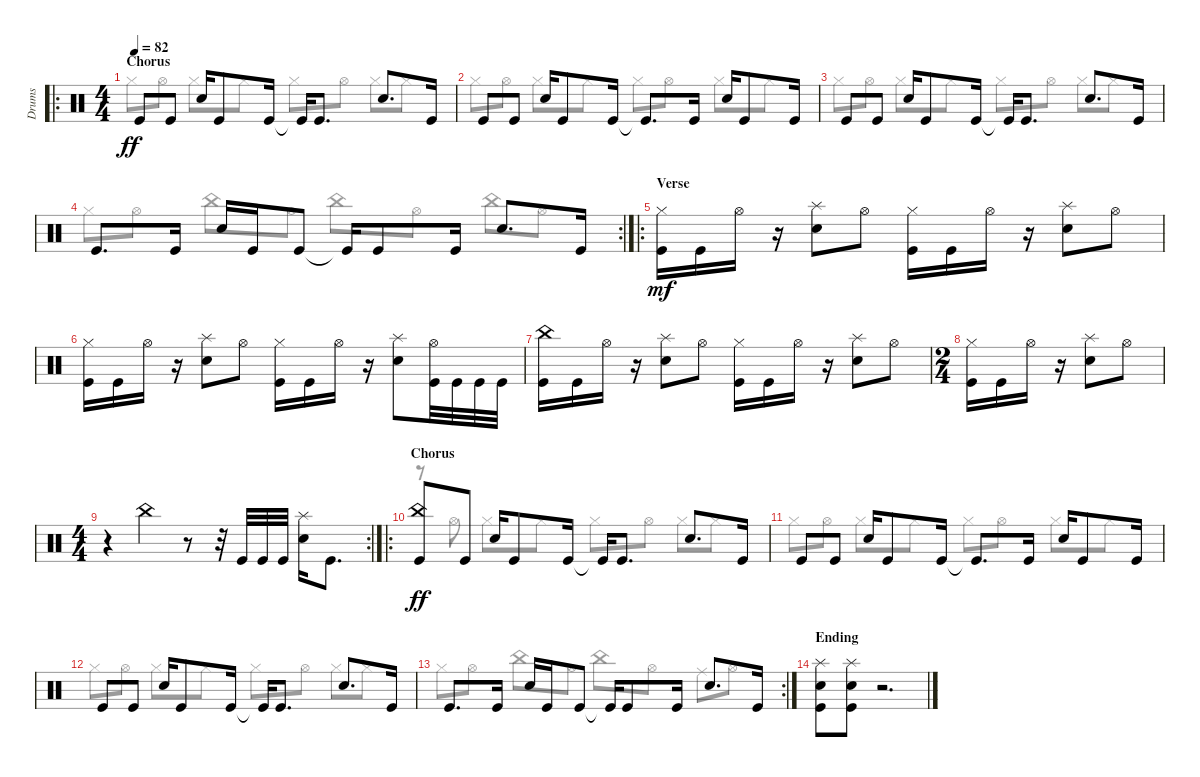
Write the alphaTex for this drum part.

\track ("Drums" "Drums") {instrument percussion}
\staff {score}
\articulation defaults
\voice
\ro
\ts (4 4)
\section ("" "Chorus")
\tempo 82
\clef neutral
\ks c "Kick (hit)".8{dy ff} "Kick (hit)".8 "Snare (hit) 2".16 "Kick (hit)".8 "Kick (hit)".16 "Kick (hit)"{t}.16 "Kick (hit)".8{d} "Snare (hit) 2".8{d} "Kick (hit)".16
|
"Kick (hit)".8 "Kick (hit)".8 "Snare (hit) 2".16 "Kick (hit)".8 "Kick (hit)".16 "Kick (hit)"{t}.8{d} "Kick (hit)".16 "Snare (hit) 2".16 "Kick (hit)".8 "Kick (hit)".16 |
"Kick (hit)".8 "Kick (hit)".8 "Snare (hit) 2".16 "Kick (hit)".8 "Kick (hit)".16 "Kick (hit)"{t}.16 "Kick (hit)".8{d} "Snare (hit) 2".8{d} "Kick (hit)".16 |
\rc 2 "Kick (hit)".8{d} "Kick (hit)".16 "Snare (hit) 2".16 "Kick (hit)".16 "Kick (hit)".8 "Kick (hit)"{t}.16 "Kick (hit)".8 "Kick (hit)".16 "Snare (hit) 2".8{d} "Kick (hit)".16
|
\ro
\section ("" "Verse")
("Kick (hit)" "Hi-Hat (closed)").16{dy mf} "Kick (hit)".16 "Hi-Hat (open)".16 r.16 ("Snare (hit) 2" "Splash (hit)").8 "Hi-Hat (open)".8 ("Kick (hit)" "Hi-Hat (closed)").16 "Kick (hit)".16 "Hi-Hat (open)".16 r.16 ("Snare (hit) 2" "Splash (hit)").8 "Hi-Hat (open)".8 |
("Kick (hit)" "Hi-Hat (closed)").16 "Kick (hit)".16 "Hi-Hat (open)".16 r.16 ("Snare (hit) 2" "Splash (hit)").8 "Hi-Hat (open)".8 ("Kick (hit)" "Hi-Hat (closed)").16 "Kick (hit)".16 "Hi-Hat (open)".16 r.16 ("Snare (hit) 2" "Splash (hit)").8 ("Hi-Hat (open)" "Kick (hit)").32 "Kick (hit)".32 "Kick (hit)".32 "Kick (hit)".32 |
("Kick (hit)" "China (hit)").16 "Kick (hit)".16 "Hi-Hat (open)".16 r.16 ("Snare (hit) 2" "Splash (hit)").8 "Hi-Hat (open)".8 ("Kick (hit)" "Hi-Hat (closed)").16 "Kick (hit)".16 "Hi-Hat (open)".16 r.16 ("Snare (hit) 2" "Splash (hit)").8 "Hi-Hat (open)".8 |
\ts (2 4)
("Kick (hit)" "Hi-Hat (closed)").16 "Kick (hit)".16 "Hi-Hat (open)".16 r.16 ("Snare (hit) 2" "Splash (hit)").8 "Hi-Hat (open)".8 |
\rc 2
\ts (4 4)
r.4 "China (hit)".4 r.8 r.32 "Kick (hit)".32 "Kick (hit)".32 "Kick (hit)".32 ("Snare (hit) 2" "Splash (hit)").16 "Kick (hit)".8{d} |
\ro
\section ("" "Chorus")
("Kick (hit)" "China (hit)").8{dy ff} "Kick (hit)".8 "Snare (hit) 2".16 "Kick (hit)".8 "Kick (hit)".16 "Kick (hit)"{t}.16 "Kick (hit)".8{d} "Snare (hit) 2".8{d} "Kick (hit)".16 |
"Kick (hit)".8 "Kick (hit)".8 "Snare (hit) 2".16 "Kick (hit)".8 "Kick (hit)".16 "Kick (hit)"{t}.8{d} "Kick (hit)".16 "Snare (hit) 2".16 "Kick (hit)".8 "Kick (hit)".16 |
"Kick (hit)".8 "Kick (hit)".8 "Snare (hit) 2".16 "Kick (hit)".8 "Kick (hit)".16 "Kick (hit)"{t}.16 "Kick (hit)".8{d} "Snare (hit) 2".8{d} "Kick (hit)".16 |
\rc 2 "Kick (hit)".8{d} "Kick (hit)".16 "Snare (hit) 2".16 "Kick (hit)".16 "Kick (hit)".8 "Kick (hit)"{t}.16 "Kick (hit)".8 "Kick (hit)".16 "Snare (hit) 2".8{d} "Kick (hit)".16
|
\section ("" "Ending")
("Kick (hit)" "Snare (hit) 2" "Splash (hit)").8 ("Kick (hit)" "Snare (hit) 2" "Splash (hit)").8 r.2{d}
\voice
\clef neutral
\ottava regular
\simile none
\ks c "Hi-Hat (closed)".8{dy ff} "Hi-Hat (open)".8 "Hi-Hat (closed)".8 "Hi-Hat (closed)".8 "Hi-Hat (closed)".8 "Hi-Hat (open)".8 "Hi-Hat (closed)".8 "Hi-Hat (closed)".8
|
"Hi-Hat (closed)".8 "Hi-Hat (open)".8 "Hi-Hat (closed)".8 "Hi-Hat (closed)".8 "Hi-Hat (closed)".8 "Hi-Hat (open)".8 "Hi-Hat (closed)".8 "Hi-Hat (closed)".8 |
"Hi-Hat (closed)".8 "Hi-Hat (open)".8 "Hi-Hat (closed)".8 "Hi-Hat (closed)".8 "Hi-Hat (closed)".8 "Hi-Hat (open)".8 "Hi-Hat (closed)".8 "Hi-Hat (closed)".8 |
"Hi-Hat (closed)".8 "Hi-Hat (open)".8 "China (hit)".8 "Hi-Hat (open)".8 "China (hit)".8 "Hi-Hat (open)".8 "China (hit)".8 "Hi-Hat (open)".8 |
|
|
|
|
|
r.8 "Hi-Hat (open)".8 "Hi-Hat (closed)".8 "Hi-Hat (closed)".8 "Hi-Hat (closed)".8 "Hi-Hat (open)".8 "Hi-Hat (closed)".8 "Hi-Hat (closed)".8 |
"Hi-Hat (closed)".8 "Hi-Hat (open)".8 "Hi-Hat (closed)".8 "Hi-Hat (closed)".8 "Hi-Hat (closed)".8 "Hi-Hat (open)".8 "Hi-Hat (closed)".8 "Hi-Hat (closed)".8 |
"Hi-Hat (closed)".8 "Hi-Hat (open)".8 "Hi-Hat (closed)".8 "Hi-Hat (closed)".8 "Hi-Hat (closed)".8 "Hi-Hat (open)".8 "Hi-Hat (closed)".8 "Hi-Hat (closed)".8 |
"Hi-Hat (closed)".8 "Hi-Hat (open)".8 "China (hit)".8 "Hi-Hat (open)".8 "China (hit)".8 "Hi-Hat (open)".8 "Ride (middle)".8 "Hi-Hat (open)".8 |
